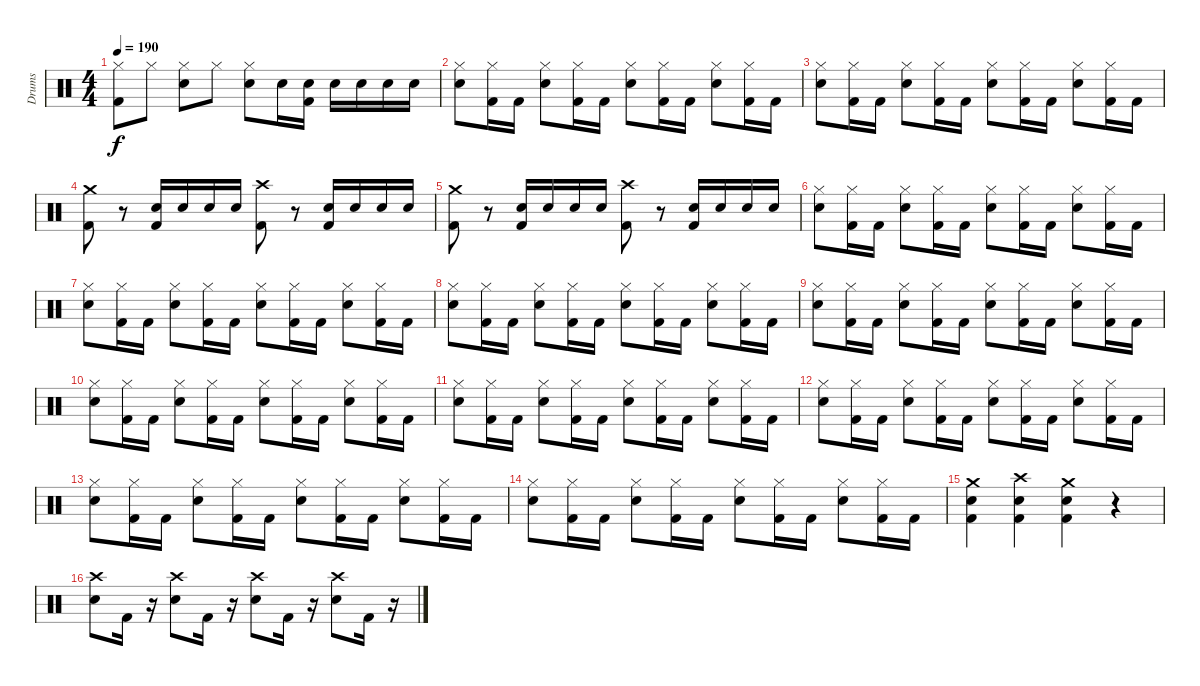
\track ("Drums" "Drums") {instrument percussion}
\staff {score}
\articulation defaults
\ts (4 4)
\tempo 190
\clef neutral
\ks c
("Kick (hit) 2" "Hi-Hat (closed)").8{dy f} "Hi-Hat (closed)".8 ("Snare (hit) 2" "Hi-Hat (closed)").8 "Hi-Hat (closed)".8 ("Snare (hit) 2" "Hi-Hat (closed)").8 "Snare (hit) 2".16 ("Snare (hit) 2" "Kick (hit) 2").16 "Snare (hit) 2".16 "Snare (hit) 2".16 "Snare (hit) 2".16 "Snare (hit) 2".16 |
("Snare (hit) 2" "Hi-Hat (closed)").8 ("Kick (hit) 2" "Hi-Hat (closed)").16 "Kick (hit) 2".16 ("Snare (hit) 2" "Hi-Hat (closed)").8 ("Kick (hit) 2" "Hi-Hat (closed)").16 "Kick (hit) 2".16 ("Snare (hit) 2" "Hi-Hat (closed)").8 ("Kick (hit) 2" "Hi-Hat (closed)").16 "Kick (hit) 2".16 ("Snare (hit) 2" "Hi-Hat (closed)").8 ("Kick (hit) 2" "Hi-Hat (closed)").16 "Kick (hit) 2".16 |
("Snare (hit) 2" "Hi-Hat (closed)").8 ("Kick (hit) 2" "Hi-Hat (closed)").16 "Kick (hit) 2".16 ("Snare (hit) 2" "Hi-Hat (closed)").8 ("Kick (hit) 2" "Hi-Hat (closed)").16 "Kick (hit) 2".16 ("Snare (hit) 2" "Hi-Hat (closed)").8 ("Kick (hit) 2" "Hi-Hat (closed)").16 "Kick (hit) 2".16 ("Snare (hit) 2" "Hi-Hat (closed)").8 ("Kick (hit) 2" "Hi-Hat (closed)").16 "Kick (hit) 2".16 |
("Crash medium (hit)" "Kick (hit) 2").8 r.8 ("Snare (hit) 2" "Kick (hit) 2").16 "Snare (hit) 2".16 "Snare (hit) 2".16 "Snare (hit) 2".16 ("Crash high (hit)" "Kick (hit) 2").8 r.8 ("Snare (hit) 2" "Kick (hit) 2").16 "Snare (hit) 2".16 "Snare (hit) 2".16 "Snare (hit) 2".16 |
("Crash medium (hit)" "Kick (hit) 2").8 r.8 ("Snare (hit) 2" "Kick (hit) 2").16 "Snare (hit) 2".16 "Snare (hit) 2".16 "Snare (hit) 2".16 ("Crash high (hit)" "Kick (hit) 2").8 r.8 ("Snare (hit) 2" "Kick (hit) 2").16 "Snare (hit) 2".16 "Snare (hit) 2".16 "Snare (hit) 2".16 |
("Snare (hit) 2" "Hi-Hat (closed)").8 ("Kick (hit) 2" "Hi-Hat (closed)").16 "Kick (hit) 2".16 ("Snare (hit) 2" "Hi-Hat (closed)").8 ("Kick (hit) 2" "Hi-Hat (closed)").16 "Kick (hit) 2".16 ("Snare (hit) 2" "Hi-Hat (closed)").8 ("Kick (hit) 2" "Hi-Hat (closed)").16 "Kick (hit) 2".16 ("Snare (hit) 2" "Hi-Hat (closed)").8 ("Kick (hit) 2" "Hi-Hat (closed)").16 "Kick (hit) 2".16 |
("Snare (hit) 2" "Hi-Hat (closed)").8 ("Kick (hit) 2" "Hi-Hat (closed)").16 "Kick (hit) 2".16 ("Snare (hit) 2" "Hi-Hat (closed)").8 ("Kick (hit) 2" "Hi-Hat (closed)").16 "Kick (hit) 2".16 ("Snare (hit) 2" "Hi-Hat (closed)").8 ("Kick (hit) 2" "Hi-Hat (closed)").16 "Kick (hit) 2".16 ("Snare (hit) 2" "Hi-Hat (closed)").8 ("Kick (hit) 2" "Hi-Hat (closed)").16 "Kick (hit) 2".16 |
("Snare (hit) 2" "Hi-Hat (closed)").8 ("Kick (hit) 2" "Hi-Hat (closed)").16 "Kick (hit) 2".16 ("Snare (hit) 2" "Hi-Hat (closed)").8 ("Kick (hit) 2" "Hi-Hat (closed)").16 "Kick (hit) 2".16 ("Snare (hit) 2" "Hi-Hat (closed)").8 ("Kick (hit) 2" "Hi-Hat (closed)").16 "Kick (hit) 2".16 ("Snare (hit) 2" "Hi-Hat (closed)").8 ("Kick (hit) 2" "Hi-Hat (closed)").16 "Kick (hit) 2".16 |
("Snare (hit) 2" "Hi-Hat (closed)").8 ("Kick (hit) 2" "Hi-Hat (closed)").16 "Kick (hit) 2".16 ("Snare (hit) 2" "Hi-Hat (closed)").8 ("Kick (hit) 2" "Hi-Hat (closed)").16 "Kick (hit) 2".16 ("Snare (hit) 2" "Hi-Hat (closed)").8 ("Kick (hit) 2" "Hi-Hat (closed)").16 "Kick (hit) 2".16 ("Snare (hit) 2" "Hi-Hat (closed)").8 ("Kick (hit) 2" "Hi-Hat (closed)").16 "Kick (hit) 2".16 |
("Snare (hit) 2" "Hi-Hat (closed)").8 ("Kick (hit) 2" "Hi-Hat (closed)").16 "Kick (hit) 2".16 ("Snare (hit) 2" "Hi-Hat (closed)").8 ("Kick (hit) 2" "Hi-Hat (closed)").16 "Kick (hit) 2".16 ("Snare (hit) 2" "Hi-Hat (closed)").8 ("Kick (hit) 2" "Hi-Hat (closed)").16 "Kick (hit) 2".16 ("Snare (hit) 2" "Hi-Hat (closed)").8 ("Kick (hit) 2" "Hi-Hat (closed)").16 "Kick (hit) 2".16 |
("Snare (hit) 2" "Hi-Hat (closed)").8 ("Kick (hit) 2" "Hi-Hat (closed)").16 "Kick (hit) 2".16 ("Snare (hit) 2" "Hi-Hat (closed)").8 ("Kick (hit) 2" "Hi-Hat (closed)").16 "Kick (hit) 2".16 ("Snare (hit) 2" "Hi-Hat (closed)").8 ("Kick (hit) 2" "Hi-Hat (closed)").16 "Kick (hit) 2".16 ("Snare (hit) 2" "Hi-Hat (closed)").8 ("Kick (hit) 2" "Hi-Hat (closed)").16 "Kick (hit) 2".16 |
("Snare (hit) 2" "Hi-Hat (closed)").8 ("Kick (hit) 2" "Hi-Hat (closed)").16 "Kick (hit) 2".16 ("Snare (hit) 2" "Hi-Hat (closed)").8 ("Kick (hit) 2" "Hi-Hat (closed)").16 "Kick (hit) 2".16 ("Snare (hit) 2" "Hi-Hat (closed)").8 ("Kick (hit) 2" "Hi-Hat (closed)").16 "Kick (hit) 2".16 ("Snare (hit) 2" "Hi-Hat (closed)").8 ("Kick (hit) 2" "Hi-Hat (closed)").16 "Kick (hit) 2".16 |
("Snare (hit) 2" "Hi-Hat (closed)").8 ("Kick (hit) 2" "Hi-Hat (closed)").16 "Kick (hit) 2".16 ("Snare (hit) 2" "Hi-Hat (closed)").8 ("Kick (hit) 2" "Hi-Hat (closed)").16 "Kick (hit) 2".16 ("Snare (hit) 2" "Hi-Hat (closed)").8 ("Kick (hit) 2" "Hi-Hat (closed)").16 "Kick (hit) 2".16 ("Snare (hit) 2" "Hi-Hat (closed)").8 ("Kick (hit) 2" "Hi-Hat (closed)").16 "Kick (hit) 2".16 |
("Snare (hit) 2" "Hi-Hat (closed)").8 ("Kick (hit) 2" "Hi-Hat (closed)").16 "Kick (hit) 2".16 ("Snare (hit) 2" "Hi-Hat (closed)").8 ("Kick (hit) 2" "Hi-Hat (closed)").16 "Kick (hit) 2".16 ("Snare (hit) 2" "Hi-Hat (closed)").8 ("Kick (hit) 2" "Hi-Hat (closed)").16 "Kick (hit) 2".16 ("Snare (hit) 2" "Hi-Hat (closed)").8 ("Kick (hit) 2" "Hi-Hat (closed)").16 "Kick (hit) 2".16 |
("Crash medium (hit)" "Snare (hit) 2" "Kick (hit) 2").4 ("Crash high (hit)" "Snare (hit) 2" "Kick (hit) 2").4 ("Crash medium (hit)" "Snare (hit) 2" "Kick (hit) 2").4 r.4 |
("Snare (hit) 2" "Crash high (hit)").8 "Kick (hit) 2".16 r.16 ("Snare (hit) 2" "Crash high (hit)").8 "Kick (hit) 2".16 r.16 ("Snare (hit) 2" "Crash high (hit)").8 "Kick (hit) 2".16 r.16 ("Snare (hit) 2" "Crash high (hit)").8 "Kick (hit) 2".16 r.16
